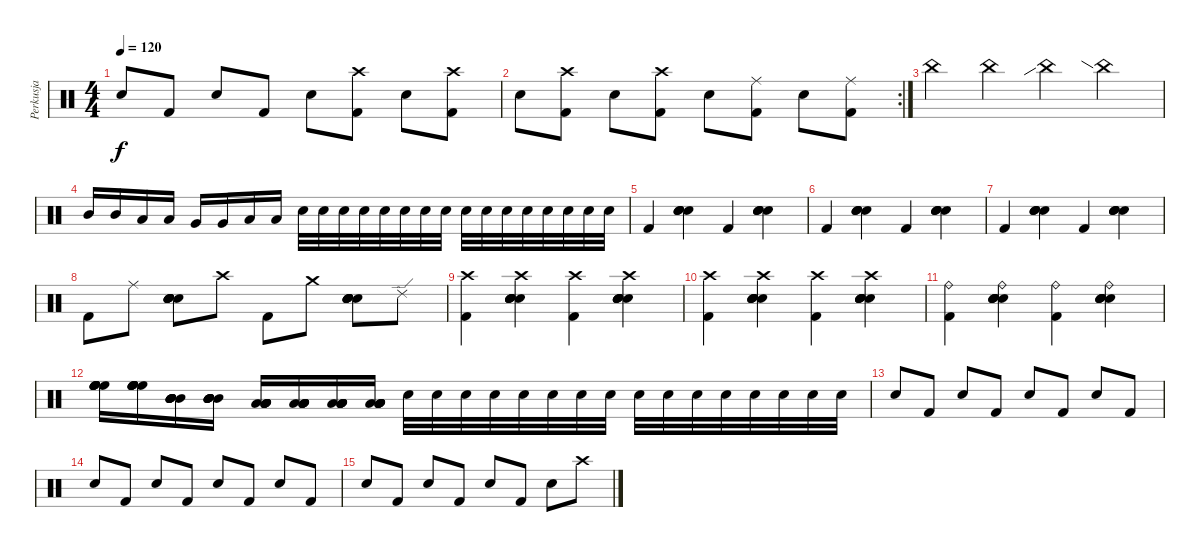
\track ("Perkusja" "Perkusja") {instrument percussion}
\staff {score}
\articulation defaults
\ts (4 4)
\tempo 120
\clef neutral
\ks c "Snare (hit) 2".8{dy f} "Kick (hit) 2".8 "Snare (hit) 2".8 "Kick (hit) 2".8 "Snare (hit) 2".8
("Crash high (hit)" "Kick (hit) 2").8 "Snare (hit) 2".8 ("Crash high (hit)" "Kick (hit) 2").8 |
\rc 2 "Snare (hit) 2".8
("Crash high (hit)" "Kick (hit) 2").8 "Snare (hit) 2".8 ("Crash high (hit)" "Kick (hit) 2").8 "Snare (hit) 2".8 ("Ride (middle)" "Kick (hit) 2").8 "Snare (hit) 2".8 ("Ride (middle)" "Kick (hit) 2").8 |
"China (hit)".4 "China (hit)".4 "China (hit)"{sib}.4 "China (hit)"{sia}.4 |
"Mid Tom (hit)".16 "Mid Tom (hit)".16 "Low Tom (hit)".16 "Low Tom (hit)".16 "Very Low Tom (hit)".16 "Very Low Tom (hit)".16 "Low Floor Tom (hit)".16 "Low Floor Tom (hit)".16 "Snare (hit) 2".32 "Snare (hit) 2".32 "Snare (hit) 2".32 "Snare (hit) 2".32 "Snare (hit) 2".32 "Snare (hit) 2".32 "Snare (hit) 2".32 "Snare (hit) 2".32 "Snare (hit) 2".32 "Snare (hit) 2".32 "Snare (hit) 2".32 "Snare (hit) 2".32 "Snare (hit) 2".32 "Snare (hit) 2".32 "Snare (hit) 2".32 "Snare (hit) 2".32 |
"Kick (hit) 2".4 ("Snare (hit) 2" "Snare (hit) 2" "Snare (hit) 2" "Snare (hit) 2").4 "Kick (hit) 2".4 ("Snare (hit) 2" "Snare (hit) 2" "Snare (hit) 2" "Snare (hit) 2").4 |
"Kick (hit) 2".4 ("Snare (hit) 2" "Snare (hit) 2" "Snare (hit) 2" "Snare (hit) 2").4 "Kick (hit) 2".4 ("Snare (hit) 2" "Snare (hit) 2" "Snare (hit) 2" "Snare (hit) 2").4 |
"Kick (hit) 2".4 ("Snare (hit) 2" "Snare (hit) 2" "Snare (hit) 2" "Snare (hit) 2").4 "Kick (hit) 2".4 ("Snare (hit) 2" "Snare (hit) 2" "Snare (hit) 2" "Snare (hit) 2").4 |
"Kick (hit) 2".8 "Ride (middle)".8 ("Snare (hit) 2" "Snare (hit) 2" "Snare (hit) 2" "Snare (hit) 2" "Snare (hit) 2" "Snare (hit) 2").8 "Crash high (hit)".8 "Kick (hit) 2".8 "Crash medium (hit)".8 ("Snare (hit) 2" "Snare (hit) 2" "Snare (hit) 2" "Snare (hit) 2" "Snare (hit) 2" "Snare (hit) 2").8 "Ride (edge) 2".8 |
("Crash high (hit)" "Kick (hit) 2").4 ("Snare (hit) 2" "Snare (hit) 2" "Crash high (hit)" "Snare (hit) 2" "Snare (hit) 2" "Snare (hit) 2").4 ("Crash high (hit)" "Kick (hit) 2").4 ("Snare (hit) 2" "Snare (hit) 2" "Crash high (hit)" "Snare (hit) 2" "Snare (hit) 2" "Snare (hit) 2").4 |
("Crash high (hit)" "Kick (hit) 2").4 ("Snare (hit) 2" "Snare (hit) 2" "Crash high (hit)" "Snare (hit) 2" "Snare (hit) 2" "Snare (hit) 2").4 ("Crash high (hit)" "Kick (hit) 2").4 ("Snare (hit) 2" "Snare (hit) 2" "Crash high (hit)" "Snare (hit) 2" "Snare (hit) 2" "Snare (hit) 2").4 |
("Ride (bell)" "Kick (hit) 2").4 ("Snare (hit) 2" "Snare (hit) 2" "Ride (bell)" "Snare (hit) 2" "Snare (hit) 2" "Snare (hit) 2").4 ("Ride (bell)" "Kick (hit) 2").4 ("Snare (hit) 2" "Snare (hit) 2" "Ride (bell)" "Snare (hit) 2" "Snare (hit) 2" "Snare (hit) 2").4 |
("High Floor Tom (hit)" "High Floor Tom (hit)" "High Floor Tom (hit)" "High Floor Tom (hit)" "High Floor Tom (hit)" "High Floor Tom (hit)").16 ("High Floor Tom (hit)" "High Floor Tom (hit)" "High Floor Tom (hit)" "High Floor Tom (hit)" "High Floor Tom (hit)" "High Floor Tom (hit)").16 ("Mid Tom (hit)" "Mid Tom (hit)" "Mid Tom (hit)" "Mid Tom (hit)" "Mid Tom (hit)" "Mid Tom (hit)").16 ("Mid Tom (hit)" "Mid Tom (hit)" "Mid Tom (hit)" "Mid Tom (hit)" "Mid Tom (hit)" "Mid Tom (hit)").16 ("Low Tom (hit)" "Low Tom (hit)" "Low Tom (hit)" "Low Tom (hit)" "Low Tom (hit)" "Low Tom (hit)").16 ("Low Tom (hit)" "Low Tom (hit)" "Low Tom (hit)" "Low Tom (hit)" "Low Tom (hit)" "Low Tom (hit)").16 ("Low Floor Tom (hit)" "Low Floor Tom (hit)" "Low Floor Tom (hit)" "Low Floor Tom (hit)" "Low Floor Tom (hit)" "Low Floor Tom (hit)").16 ("Low Floor Tom (hit)" "Low Floor Tom (hit)" "Low Floor Tom (hit)" "Low Floor Tom (hit)" "Low Floor Tom (hit)" "Low Floor Tom (hit)").16 "Snare (hit) 2".32 "Snare (hit) 2".32 "Snare (hit) 2".32 "Snare (hit) 2".32 "Snare (hit) 2".32 "Snare (hit) 2".32 "Snare (hit) 2".32 "Snare (hit) 2".32 "Snare (hit) 2".32 "Snare (hit) 2".32 "Snare (hit) 2".32 "Snare (hit) 2".32 "Snare (hit) 2".32 "Snare (hit) 2".32 "Snare (hit) 2".32 "Snare (hit) 2".32 |
"Snare (hit) 2".8 "Kick (hit) 2".8 "Snare (hit) 2".8 "Kick (hit) 2".8 "Snare (hit) 2".8 "Kick (hit) 2".8 "Snare (hit) 2".8 "Kick (hit) 2".8 |
"Snare (hit) 2".8 "Kick (hit) 2".8 "Snare (hit) 2".8 "Kick (hit) 2".8 "Snare (hit) 2".8 "Kick (hit) 2".8 "Snare (hit) 2".8 "Kick (hit) 2".8 |
"Snare (hit) 2".8 "Kick (hit) 2".8 "Snare (hit) 2".8 "Kick (hit) 2".8 "Snare (hit) 2".8 "Kick (hit) 2".8 "Snare (hit) 2".8 "Crash high (hit)".8
